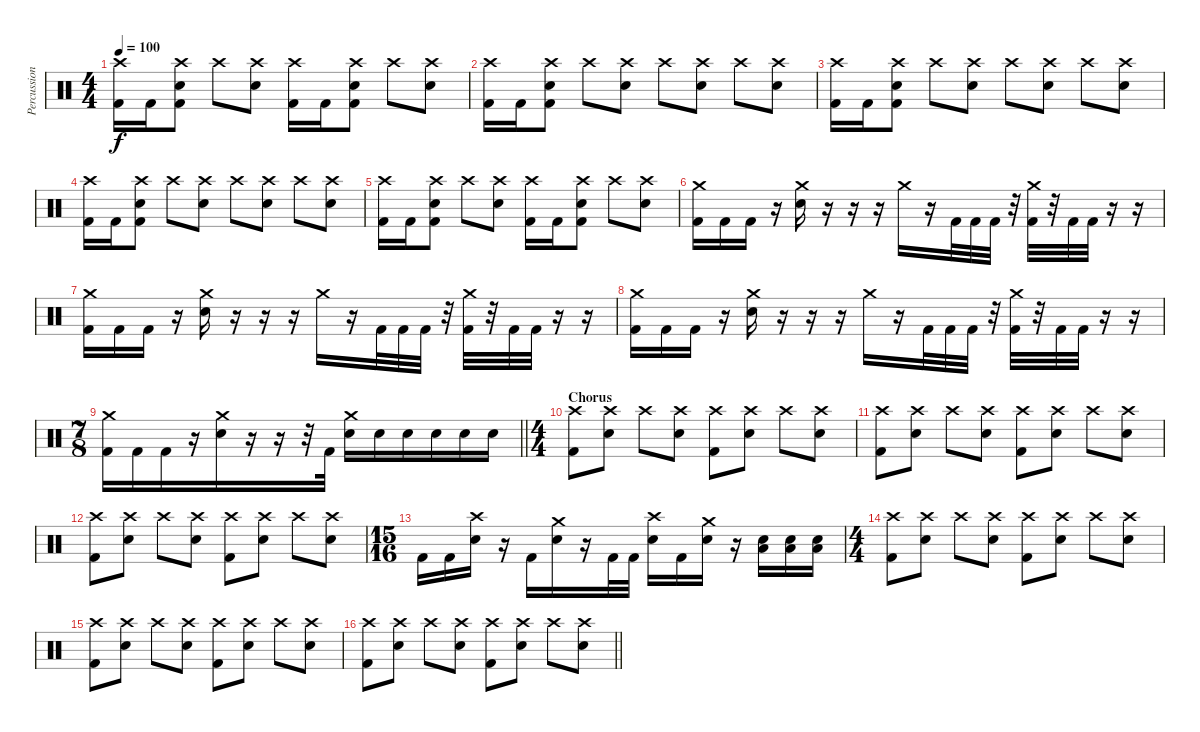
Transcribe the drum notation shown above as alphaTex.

\track ("Percussion" "Percussion") {instrument percussion}
\staff {score}
\articulation defaults
\ts (4 4)
\tempo 100
\clef neutral
\ks c
("Crash high (hit)" "Kick (hit) 2").16{dy f} "Kick (hit) 2".16 ("Crash high (hit)" "Electric Snare (hit)" "Kick (hit) 2").8 "Crash high (hit)".8 ("Crash high (hit)" "Electric Snare (hit)").8 ("Crash high (hit)" "Kick (hit) 2").16 "Kick (hit) 2".16 ("Crash high (hit)" "Electric Snare (hit)" "Kick (hit) 2").8 "Crash high (hit)".8 ("Crash high (hit)" "Electric Snare (hit)").8 |
("Crash high (hit)" "Kick (hit) 2").16 "Kick (hit) 2".16 ("Crash high (hit)" "Electric Snare (hit)" "Kick (hit) 2").8 "Crash high (hit)".8 ("Crash high (hit)" "Electric Snare (hit)").8 "Crash high (hit)".8 ("Crash high (hit)" "Electric Snare (hit)").8 "Crash high (hit)".8 ("Crash high (hit)" "Electric Snare (hit)").8 |
("Crash high (hit)" "Kick (hit) 2").16 "Kick (hit) 2".16 ("Crash high (hit)" "Electric Snare (hit)" "Kick (hit) 2").8 "Crash high (hit)".8 ("Crash high (hit)" "Electric Snare (hit)").8 "Crash high (hit)".8 ("Crash high (hit)" "Electric Snare (hit)").8 "Crash high (hit)".8 ("Crash high (hit)" "Electric Snare (hit)").8 |
("Crash high (hit)" "Kick (hit) 2").16 "Kick (hit) 2".16 ("Crash high (hit)" "Electric Snare (hit)" "Kick (hit) 2").8 "Crash high (hit)".8 ("Crash high (hit)" "Electric Snare (hit)").8 "Crash high (hit)".8 ("Crash high (hit)" "Electric Snare (hit)").8 "Crash high (hit)".8 ("Crash high (hit)" "Electric Snare (hit)").8 |
("Crash high (hit)" "Kick (hit) 2").16 "Kick (hit) 2".16 ("Crash high (hit)" "Electric Snare (hit)" "Kick (hit) 2").8 "Crash high (hit)".8 ("Crash high (hit)" "Electric Snare (hit)").8 ("Crash high (hit)" "Kick (hit) 2").16 "Kick (hit) 2".16 ("Crash high (hit)" "Electric Snare (hit)" "Kick (hit) 2").8 "Crash high (hit)".8 ("Crash high (hit)" "Electric Snare (hit)").8 |
("Crash medium (hit)" "Kick (hit) 2").16 "Kick (hit) 2".16 "Kick (hit) 2".16 r.16 ("Crash medium (hit)" "Electric Snare (hit)").16 r.16 r.16 r.16 "Crash medium (hit)".16 r.16 "Kick (hit) 2".32 "Kick (hit) 2".32 "Kick (hit) 2".32 r.32 ("Crash medium (hit)" "Kick (hit) 2").32 r.32 "Kick (hit) 2".32 "Kick (hit) 2".32 r.16 r.16 |
("Crash medium (hit)" "Kick (hit) 2").16 "Kick (hit) 2".16 "Kick (hit) 2".16 r.16 ("Crash medium (hit)" "Electric Snare (hit)").16 r.16 r.16 r.16 "Crash medium (hit)".16 r.16 "Kick (hit) 2".32 "Kick (hit) 2".32 "Kick (hit) 2".32 r.32 ("Crash medium (hit)" "Kick (hit) 2").32 r.32 "Kick (hit) 2".32 "Kick (hit) 2".32 r.16 r.16 |
("Crash medium (hit)" "Kick (hit) 2").16 "Kick (hit) 2".16 "Kick (hit) 2".16 r.16 ("Crash medium (hit)" "Electric Snare (hit)").16 r.16 r.16 r.16 "Crash medium (hit)".16 r.16 "Kick (hit) 2".32 "Kick (hit) 2".32 "Kick (hit) 2".32 r.32 ("Crash medium (hit)" "Kick (hit) 2").32 r.32 "Kick (hit) 2".32 "Kick (hit) 2".32 r.16 r.16 |
\ts (7 8)
\barLineRight lightlight
("Crash medium (hit)" "Kick (hit) 2").16 "Kick (hit) 2".16 "Kick (hit) 2".16 r.16 ("Crash medium (hit)" "Electric Snare (hit)").16 r.16 r.16 r.32 "Kick (hit) 2".32 ("Crash medium (hit)" "Electric Snare (hit)").16 "Electric Snare (hit)".16 "Electric Snare (hit)".16 "Electric Snare (hit)".16 "Electric Snare (hit)".16 "Electric Snare (hit)".16 |
\ts (4 4)
\section ("" "Chorus")
("Crash high (hit)" "Kick (hit) 2").8 ("Crash high (hit)" "Electric Snare (hit)").8 "Crash high (hit)".8 ("Crash high (hit)" "Electric Snare (hit)").8 ("Crash high (hit)" "Kick (hit) 2").8 ("Crash high (hit)" "Electric Snare (hit)").8 "Crash high (hit)".8 ("Crash high (hit)" "Electric Snare (hit)").8 |
("Crash high (hit)" "Kick (hit) 2").8 ("Crash high (hit)" "Electric Snare (hit)").8 "Crash high (hit)".8 ("Crash high (hit)" "Electric Snare (hit)").8 ("Crash high (hit)" "Kick (hit) 2").8 ("Crash high (hit)" "Electric Snare (hit)").8 "Crash high (hit)".8 ("Crash high (hit)" "Electric Snare (hit)").8 |
("Crash high (hit)" "Kick (hit) 2").8 ("Crash high (hit)" "Electric Snare (hit)").8 "Crash high (hit)".8 ("Crash high (hit)" "Electric Snare (hit)").8 ("Crash high (hit)" "Kick (hit) 2").8 ("Crash high (hit)" "Electric Snare (hit)").8 "Crash high (hit)".8 ("Crash high (hit)" "Electric Snare (hit)").8 |
\ts (15 16)
"Kick (hit) 2".16 "Kick (hit) 2".16 ("Crash high (hit)" "Electric Snare (hit)").16 r.16 "Kick (hit) 2".16 ("Crash medium (hit)" "Electric Snare (hit)").16 r.16 "Kick (hit) 2".32 "Kick (hit) 2".32 ("Crash high (hit)" "Electric Snare (hit)").16 "Kick (hit) 2".16 ("Crash medium (hit)" "Electric Snare (hit)").16 r.16 ("Electric Snare (hit)" "Low Floor Tom (hit)").16 ("Electric Snare (hit)" "Low Floor Tom (hit)").16 ("Electric Snare (hit)" "Low Floor Tom (hit)").16 |
\ts (4 4)
("Crash high (hit)" "Kick (hit) 2").8 ("Crash high (hit)" "Electric Snare (hit)").8 "Crash high (hit)".8 ("Crash high (hit)" "Electric Snare (hit)").8 ("Crash high (hit)" "Kick (hit) 2").8 ("Crash high (hit)" "Electric Snare (hit)").8 "Crash high (hit)".8 ("Crash high (hit)" "Electric Snare (hit)").8 |
("Crash high (hit)" "Kick (hit) 2").8 ("Crash high (hit)" "Electric Snare (hit)").8 "Crash high (hit)".8 ("Crash high (hit)" "Electric Snare (hit)").8 ("Crash high (hit)" "Kick (hit) 2").8 ("Crash high (hit)" "Electric Snare (hit)").8 "Crash high (hit)".8 ("Crash high (hit)" "Electric Snare (hit)").8 |
\barLineRight lightlight
("Crash high (hit)" "Kick (hit) 2").8 ("Crash high (hit)" "Electric Snare (hit)").8 "Crash high (hit)".8 ("Crash high (hit)" "Electric Snare (hit)").8 ("Crash high (hit)" "Kick (hit) 2").8 ("Crash high (hit)" "Electric Snare (hit)").8 "Crash high (hit)".8 ("Crash high (hit)" "Electric Snare (hit)").8
